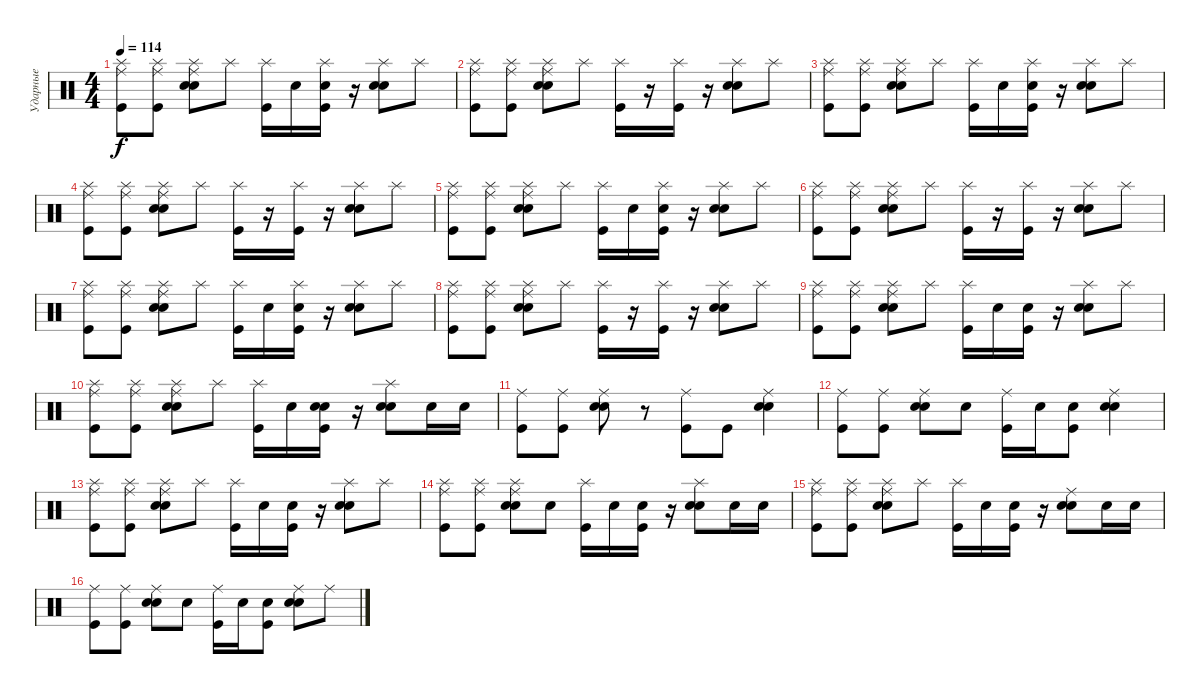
\track ("Ударные" "Ударные") {instrument percussion}
\staff {score}
\articulation defaults
\ts (4 4)
\tempo 114
\clef neutral
\ks c
("Splash (hit)" "Ride (middle)" "Kick (hit)").8{dy f} ("Splash (hit)" "Ride (middle)" "Kick (hit)").8 ("Splash (hit)" "Ride (middle)" "Electric Snare (hit)" "Snare (hit) 2").8 "Splash (hit)".8 ("Splash (hit)" "Kick (hit)").16 "Electric Snare (hit)".16 ("Splash (hit)" "Snare (hit) 2" "Kick (hit)").16 r.16 ("Splash (hit)" "Electric Snare (hit)" "Snare (hit) 2").8 "Splash (hit)".8 |
("Splash (hit)" "Ride (middle)" "Kick (hit)").8 ("Splash (hit)" "Ride (middle)" "Kick (hit)").8 ("Splash (hit)" "Ride (middle)" "Electric Snare (hit)" "Snare (hit) 2").8 "Splash (hit)".8 ("Splash (hit)" "Kick (hit)").16 r.16 ("Splash (hit)" "Kick (hit)").16 r.16 ("Splash (hit)" "Electric Snare (hit)" "Snare (hit) 2").8 "Splash (hit)".8 |
("Splash (hit)" "Ride (middle)" "Kick (hit)").8 ("Splash (hit)" "Ride (middle)" "Kick (hit)").8 ("Splash (hit)" "Ride (middle)" "Electric Snare (hit)" "Snare (hit) 2").8 "Splash (hit)".8 ("Splash (hit)" "Kick (hit)").16 "Electric Snare (hit)".16 ("Splash (hit)" "Snare (hit) 2" "Kick (hit)").16 r.16 ("Splash (hit)" "Electric Snare (hit)" "Snare (hit) 2").8 "Splash (hit)".8 |
("Splash (hit)" "Ride (middle)" "Kick (hit)").8 ("Splash (hit)" "Ride (middle)" "Kick (hit)").8 ("Splash (hit)" "Ride (middle)" "Electric Snare (hit)" "Snare (hit) 2").8 "Splash (hit)".8 ("Splash (hit)" "Kick (hit)").16 r.16 ("Splash (hit)" "Kick (hit)").16 r.16 ("Splash (hit)" "Electric Snare (hit)" "Snare (hit) 2").8 "Splash (hit)".8 |
("Splash (hit)" "Ride (middle)" "Kick (hit)").8 ("Splash (hit)" "Ride (middle)" "Kick (hit)").8 ("Splash (hit)" "Ride (middle)" "Electric Snare (hit)" "Snare (hit) 2").8 "Splash (hit)".8 ("Splash (hit)" "Kick (hit)").16 "Electric Snare (hit)".16 ("Splash (hit)" "Snare (hit) 2" "Kick (hit)").16 r.16 ("Splash (hit)" "Electric Snare (hit)" "Snare (hit) 2").8 "Splash (hit)".8 |
("Splash (hit)" "Ride (middle)" "Kick (hit)").8 ("Splash (hit)" "Ride (middle)" "Kick (hit)").8 ("Splash (hit)" "Ride (middle)" "Electric Snare (hit)" "Snare (hit) 2").8 "Splash (hit)".8 ("Splash (hit)" "Kick (hit)").16 r.16 ("Splash (hit)" "Kick (hit)").16 r.16 ("Splash (hit)" "Electric Snare (hit)" "Snare (hit) 2").8 "Splash (hit)".8 |
("Splash (hit)" "Ride (middle)" "Kick (hit)").8 ("Splash (hit)" "Ride (middle)" "Kick (hit)").8 ("Splash (hit)" "Ride (middle)" "Electric Snare (hit)" "Snare (hit) 2").8 "Splash (hit)".8 ("Splash (hit)" "Kick (hit)").16 "Electric Snare (hit)".16 ("Splash (hit)" "Snare (hit) 2" "Kick (hit)").16 r.16 ("Splash (hit)" "Electric Snare (hit)" "Snare (hit) 2").8 "Splash (hit)".8 |
("Splash (hit)" "Ride (middle)" "Kick (hit)").8 ("Splash (hit)" "Ride (middle)" "Kick (hit)").8 ("Splash (hit)" "Ride (middle)" "Electric Snare (hit)" "Snare (hit) 2").8 "Splash (hit)".8 ("Splash (hit)" "Kick (hit)").16 r.16 ("Splash (hit)" "Kick (hit)").16 r.16 ("Splash (hit)" "Electric Snare (hit)" "Snare (hit) 2").8 "Splash (hit)".8 |
("Splash (hit)" "Ride (middle)" "Kick (hit)").8 ("Splash (hit)" "Ride (middle)" "Kick (hit)").8 ("Splash (hit)" "Ride (middle)" "Electric Snare (hit)" "Snare (hit) 2").8 "Splash (hit)".8 ("Splash (hit)" "Kick (hit)").16 "Electric Snare (hit)".16 ("Snare (hit) 2" "Kick (hit)").16 r.16 ("Splash (hit)" "Electric Snare (hit)" "Snare (hit) 2").8 "Splash (hit)".8 |
("Splash (hit)" "Ride (middle)" "Kick (hit)").8 ("Splash (hit)" "Ride (middle)" "Kick (hit)").8 ("Splash (hit)" "Ride (middle)" "Electric Snare (hit)" "Snare (hit) 2").8 "Splash (hit)".8 ("Splash (hit)" "Kick (hit)").16 "Electric Snare (hit)".16 ("Electric Snare (hit)" "Snare (hit) 2" "Kick (hit)").16 r.16 ("Splash (hit)" "Electric Snare (hit)" "Snare (hit) 2").8 "Electric Snare (hit)".16 "Electric Snare (hit)".16 |
("Ride (middle)" "Kick (hit)").8 ("Ride (middle)" "Kick (hit)").8 ("Ride (middle)" "Electric Snare (hit)" "Snare (hit) 2").8 r.8 ("Ride (middle)" "Kick (hit)").8 "Kick (hit)".8 ("Ride (middle)" "Electric Snare (hit)" "Snare (hit) 2").4 |
("Ride (middle)" "Kick (hit)").8 ("Ride (middle)" "Kick (hit)").8 ("Ride (middle)" "Electric Snare (hit)" "Snare (hit) 2").8 "Electric Snare (hit)".8 ("Ride (middle)" "Kick (hit)").16 "Electric Snare (hit)".16 ("Snare (hit) 2" "Kick (hit)").8 ("Ride (middle)" "Electric Snare (hit)" "Snare (hit) 2").4 |
("Splash (hit)" "Ride (middle)" "Kick (hit)").8 ("Splash (hit)" "Ride (middle)" "Kick (hit)").8 ("Splash (hit)" "Ride (middle)" "Electric Snare (hit)" "Snare (hit) 2").8 "Splash (hit)".8 ("Splash (hit)" "Kick (hit)").16 "Electric Snare (hit)".16 ("Snare (hit) 2" "Kick (hit)").16 r.16 ("Splash (hit)" "Electric Snare (hit)" "Snare (hit) 2").8 "Splash (hit)".8 |
("Splash (hit)" "Ride (middle)" "Kick (hit)").8 ("Splash (hit)" "Ride (middle)" "Kick (hit)").8 ("Splash (hit)" "Ride (middle)" "Electric Snare (hit)" "Snare (hit) 2").8 "Electric Snare (hit)".8 ("Splash (hit)" "Kick (hit)").16 "Electric Snare (hit)".16 ("Snare (hit) 2" "Kick (hit)").16 r.16 ("Splash (hit)" "Electric Snare (hit)" "Snare (hit) 2").8 "Electric Snare (hit)".16 "Electric Snare (hit)".16 |
("Splash (hit)" "Ride (middle)" "Kick (hit)").8 ("Splash (hit)" "Ride (middle)" "Kick (hit)").8 ("Splash (hit)" "Ride (middle)" "Electric Snare (hit)" "Snare (hit) 2").8 "Splash (hit)".8 ("Splash (hit)" "Kick (hit)").16 "Electric Snare (hit)".16 ("Snare (hit) 2" "Kick (hit)").16 r.16 ("Ride (middle)" "Electric Snare (hit)" "Snare (hit) 2").8 "Electric Snare (hit)".16 "Electric Snare (hit)".16 |
("Ride (middle)" "Kick (hit)").8 ("Ride (middle)" "Kick (hit)").8 ("Ride (middle)" "Electric Snare (hit)" "Snare (hit) 2").8 "Electric Snare (hit)".8 ("Ride (middle)" "Kick (hit)").16 "Electric Snare (hit)".16 ("Electric Snare (hit)" "Kick (hit)").8 ("Ride (middle)" "Electric Snare (hit)" "Snare (hit) 2").8 "Ride (middle)".8
